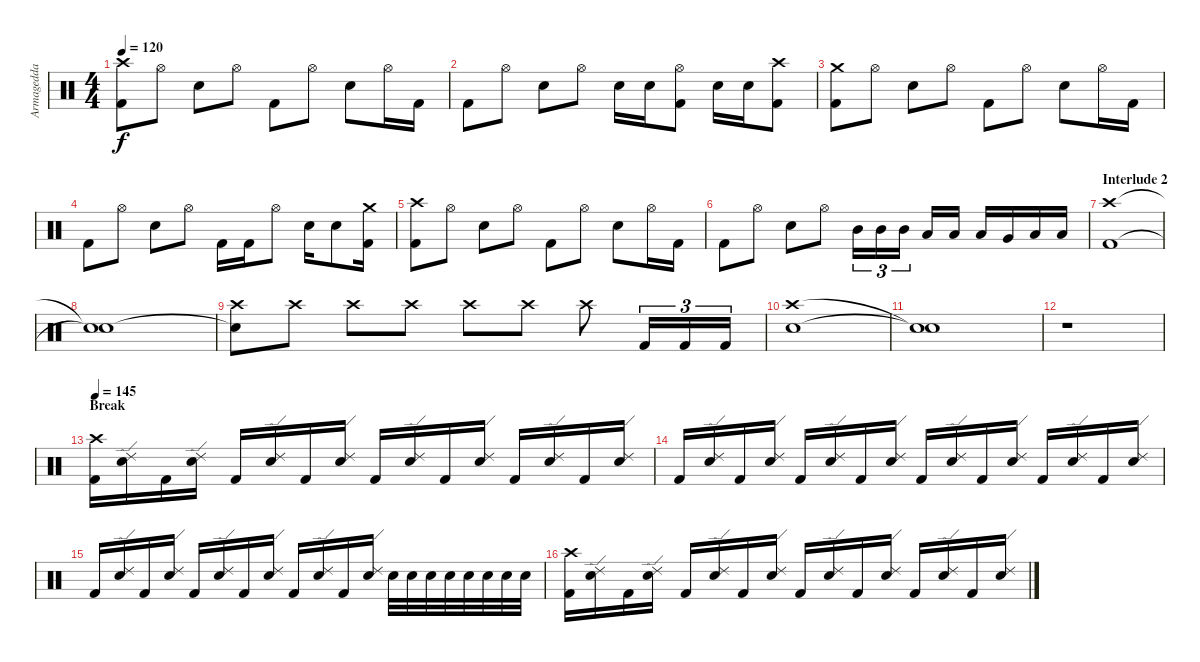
\track ("Armagedda" "Armagedda") {instrument percussion}
\staff {score}
\articulation defaults
\ts (4 4)
\tempo 120
\clef neutral
\ks c
("Crash high (hit)" "Kick (hit) 2").8{dy f} "Hi-Hat (open)".8 "Electric Snare (hit)".8 "Hi-Hat (open)".8 "Kick (hit) 2".8 "Hi-Hat (open)".8 "Electric Snare (hit)".8 "Hi-Hat (open)".16 "Kick (hit) 2".16 |
"Kick (hit) 2".8 "Hi-Hat (open)".8 "Electric Snare (hit)".8 "Hi-Hat (open)".8 "Electric Snare (hit)".16 "Electric Snare (hit)".16 ("Hi-Hat (open)" "Kick (hit) 2").8 "Electric Snare (hit)".16 "Electric Snare (hit)".16 ("Crash high (hit)" "Kick (hit) 2").8 |
("Crash medium (hit)" "Kick (hit) 2").8 "Hi-Hat (open)".8 "Electric Snare (hit)".8 "Hi-Hat (open)".8 "Kick (hit) 2".8 "Hi-Hat (open)".8 "Electric Snare (hit)".8 "Hi-Hat (open)".16 "Kick (hit) 2".16 |
"Kick (hit) 2".8 "Hi-Hat (open)".8 "Electric Snare (hit)".8 "Hi-Hat (open)".8 "Kick (hit) 2".16 "Kick (hit) 2".16 "Hi-Hat (open)".8 "Electric Snare (hit)".16 "Electric Snare (hit)".8 ("Crash medium (hit)" "Kick (hit) 2").16 |
("Crash high (hit)" "Kick (hit) 2").8 "Hi-Hat (open)".8 "Electric Snare (hit)".8 "Hi-Hat (open)".8 "Kick (hit) 2".8 "Hi-Hat (open)".8 "Electric Snare (hit)".8 "Hi-Hat (open)".16 "Kick (hit) 2".16 |
"Kick (hit) 2".8 "Hi-Hat (open)".8 "Electric Snare (hit)".8 "Hi-Hat (open)".8 "Mid Tom (hit)".16{tu (3 2)} "Mid Tom (hit)".16{tu (3 2)} "Mid Tom (hit)".16{tu (3 2)} "Low Tom (hit)".16 "Low Tom (hit)".16 "Low Tom (hit)".16 "Very Low Tom (hit)".16 "Low Floor Tom (hit)".16 "Low Floor Tom (hit)".16 |
\section ("" "Interlude 2")
("Crash high (hit)" "Kick (hit) 2").1 |
("Snare (hit)"{t} "Snare (hit)"{t}).1 |
("Crash high (hit)" "Snare (hit)"{t}).8{volume 3} "Crash high (hit)".8{volume 5} "Crash high (hit)".8{volume 7} "Crash high (hit)".8{volume 9} "Crash high (hit)".8{volume 11} "Crash high (hit)".8{volume 13} "Crash high (hit)".8 "Kick (hit) 2".16{tu (3 2)} "Kick (hit) 2".16{tu (3 2)} "Kick (hit) 2".16{tu (3 2)} |
("Crash high (hit)" "Electric Snare (hit)").1 |
("Snare (hit)"{t} "Snare (hit)"{t}).1 |
r.1 |
\section ("" "Break")
\tempo 145
("Crash high (hit)" "Kick (hit) 2").16 ("Ride (edge) 2" "Electric Snare (hit)").16 "Kick (hit) 2".16 ("Ride (edge) 2" "Electric Snare (hit)").16 "Kick (hit) 2".16 ("Ride (edge) 2" "Electric Snare (hit)").16 "Kick (hit) 2".16 ("Ride (edge) 2" "Electric Snare (hit)").16 "Kick (hit) 2".16 ("Ride (edge) 2" "Electric Snare (hit)").16 "Kick (hit) 2".16 ("Ride (edge) 2" "Electric Snare (hit)").16 "Kick (hit) 2".16 ("Ride (edge) 2" "Electric Snare (hit)").16 "Kick (hit) 2".16 ("Ride (edge) 2" "Electric Snare (hit)").16 |
"Kick (hit) 2".16 ("Ride (edge) 2" "Electric Snare (hit)").16 "Kick (hit) 2".16 ("Ride (edge) 2" "Electric Snare (hit)").16 "Kick (hit) 2".16 ("Ride (edge) 2" "Electric Snare (hit)").16 "Kick (hit) 2".16 ("Ride (edge) 2" "Electric Snare (hit)").16 "Kick (hit) 2".16 ("Ride (edge) 2" "Electric Snare (hit)").16 "Kick (hit) 2".16 ("Ride (edge) 2" "Electric Snare (hit)").16 "Kick (hit) 2".16 ("Ride (edge) 2" "Electric Snare (hit)").16 "Kick (hit) 2".16 ("Ride (edge) 2" "Electric Snare (hit)").16 |
"Kick (hit) 2".16 ("Ride (edge) 2" "Electric Snare (hit)").16 "Kick (hit) 2".16 ("Ride (edge) 2" "Electric Snare (hit)").16 "Kick (hit) 2".16 ("Ride (edge) 2" "Electric Snare (hit)").16 "Kick (hit) 2".16 ("Ride (edge) 2" "Electric Snare (hit)").16 "Kick (hit) 2".16 ("Ride (edge) 2" "Electric Snare (hit)").16 "Kick (hit) 2".16 ("Ride (edge) 2" "Electric Snare (hit)").16 "Electric Snare (hit)".32 "Electric Snare (hit)".32 "Electric Snare (hit)".32 "Electric Snare (hit)".32 "Electric Snare (hit)".32 "Electric Snare (hit)".32 "Electric Snare (hit)".32 "Electric Snare (hit)".32 |
("Crash high (hit)" "Kick (hit) 2").16 ("Ride (edge) 2" "Electric Snare (hit)").16 "Kick (hit) 2".16 ("Ride (edge) 2" "Electric Snare (hit)").16 "Kick (hit) 2".16 ("Ride (edge) 2" "Electric Snare (hit)").16 "Kick (hit) 2".16 ("Ride (edge) 2" "Electric Snare (hit)").16 "Kick (hit) 2".16 ("Ride (edge) 2" "Electric Snare (hit)").16 "Kick (hit) 2".16 ("Ride (edge) 2" "Electric Snare (hit)").16 "Kick (hit) 2".16 ("Ride (edge) 2" "Electric Snare (hit)").16 "Kick (hit) 2".16 ("Ride (edge) 2" "Electric Snare (hit)").16
